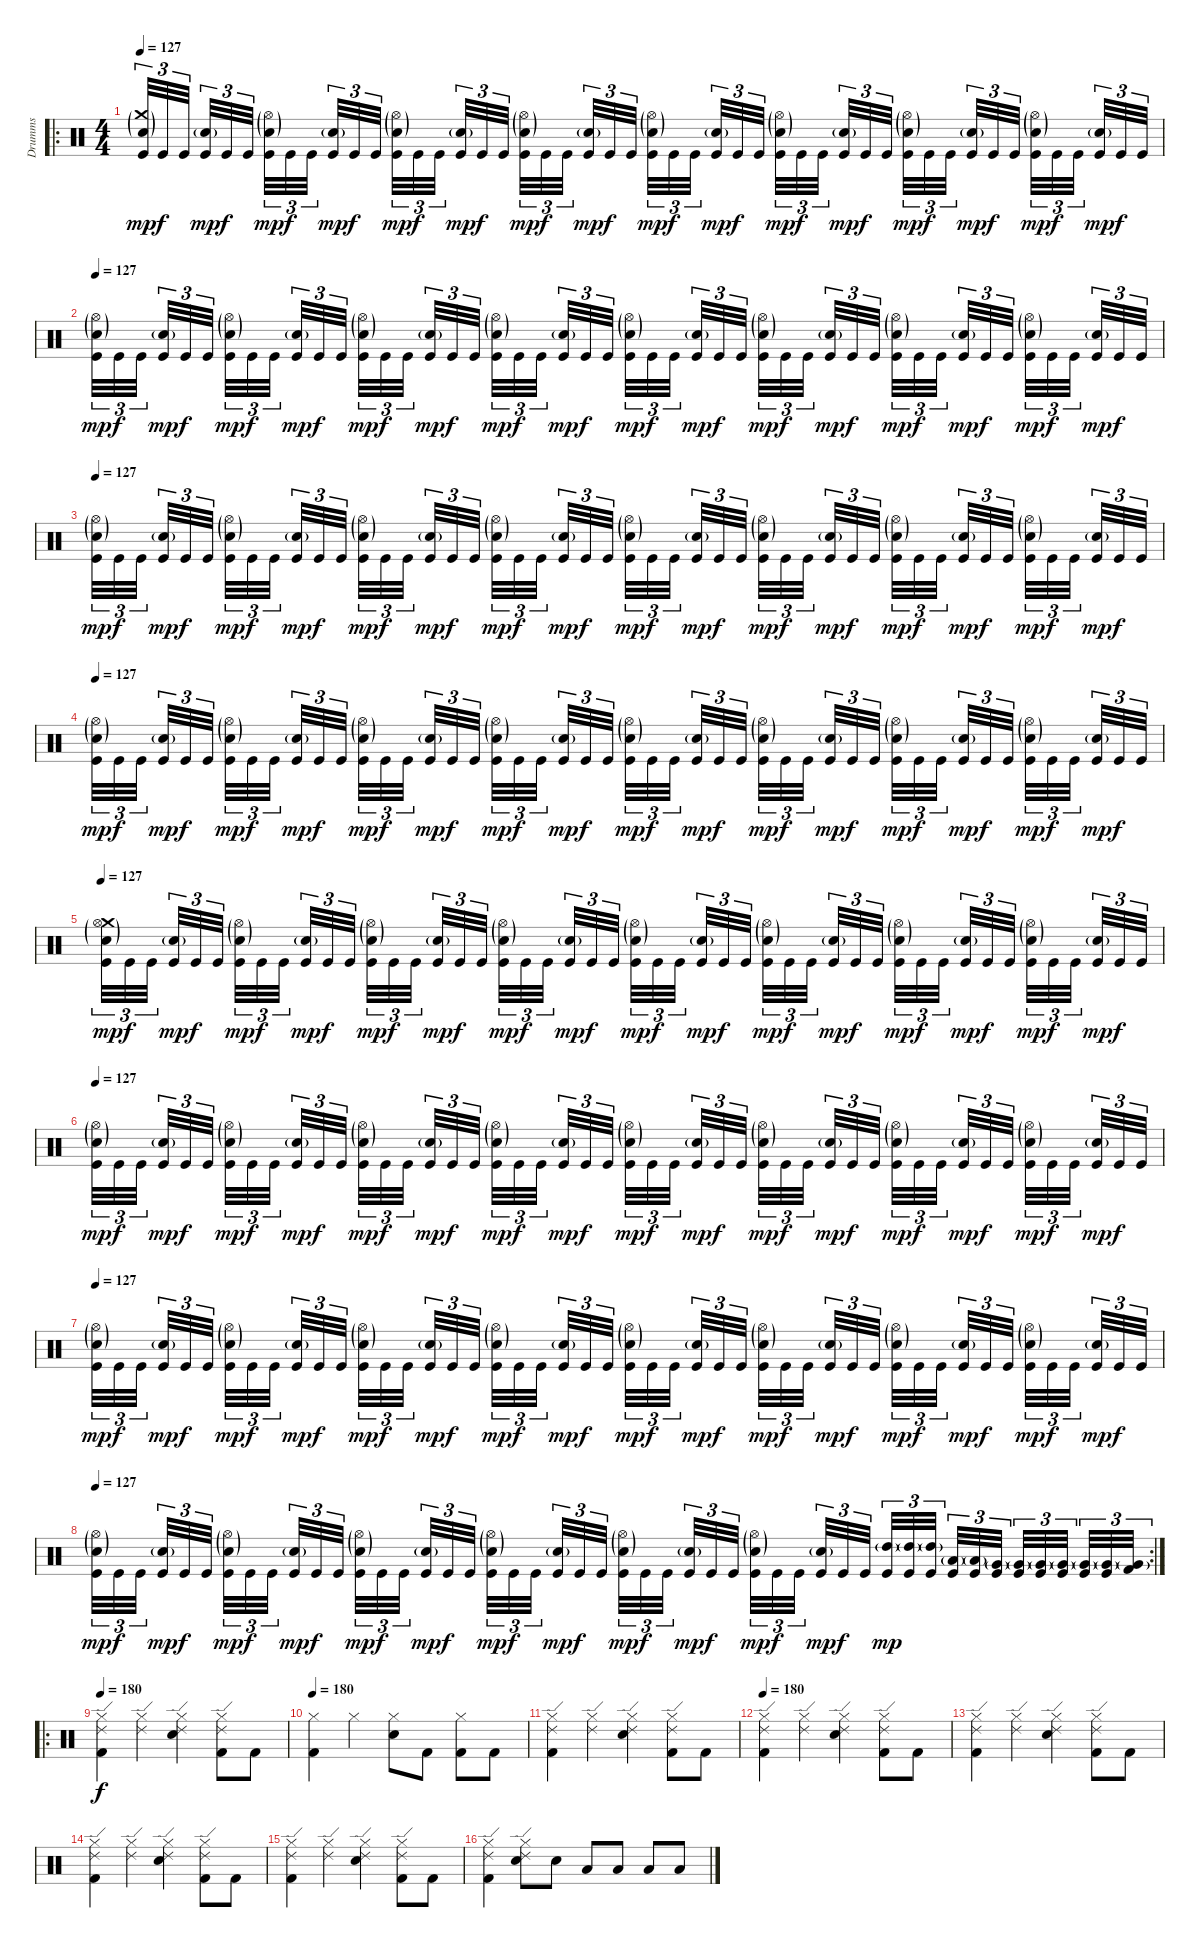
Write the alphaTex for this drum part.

\track ("Drumms" "Drumms") {instrument percussion}
\staff {score}
\articulation defaults
\ro
\ts (4 4)
\tempo 127
\clef neutral
\ks c
("Kick (hit)" "Crash medium (hit)"{g} "Snare (hit) 2"{g}).32{tu (3 2) dy mp} "Kick (hit)".32{tu (3 2) dy f} "Kick (hit)".32{tu (3 2)} ("Kick (hit)" "Snare (hit) 2"{g}).32{tu (3 2) dy mp} "Kick (hit)".32{tu (3 2) dy f} "Kick (hit)".32{tu (3 2)} ("Kick (hit)" "Hi-Hat (open)"{g} "Snare (hit) 2"{g}).32{tu (3 2) dy mp} "Kick (hit)".32{tu (3 2) dy f} "Kick (hit)".32{tu (3 2)} ("Kick (hit)" "Snare (hit) 2"{g}).32{tu (3 2) dy mp} "Kick (hit)".32{tu (3 2) dy f} "Kick (hit)".32{tu (3 2)} ("Kick (hit)" "Snare (hit) 2"{g} "Hi-Hat (open)"{g}).32{tu (3 2) dy mp} "Kick (hit)".32{tu (3 2) dy f} "Kick (hit)".32{tu (3 2)} ("Kick (hit)" "Snare (hit) 2"{g}).32{tu (3 2) dy mp} "Kick (hit)".32{tu (3 2) dy f} "Kick (hit)".32{tu (3 2)} ("Kick (hit)" "Hi-Hat (open)"{g} "Snare (hit) 2"{g}).32{tu (3 2) dy mp} "Kick (hit)".32{tu (3 2) dy f} "Kick (hit)".32{tu (3 2)} ("Kick (hit)" "Snare (hit) 2"{g}).32{tu (3 2) dy mp} "Kick (hit)".32{tu (3 2) dy f} "Kick (hit)".32{tu (3 2)} ("Kick (hit)" "Hi-Hat (open)"{g} "Snare (hit) 2"{g}).32{tu (3 2) dy mp} "Kick (hit)".32{tu (3 2) dy f} "Kick (hit)".32{tu (3 2)} ("Kick (hit)" "Snare (hit) 2"{g}).32{tu (3 2) dy mp} "Kick (hit)".32{tu (3 2) dy f} "Kick (hit)".32{tu (3 2)} ("Kick (hit)" "Hi-Hat (open)"{g} "Snare (hit) 2"{g}).32{tu (3 2) dy mp} "Kick (hit)".32{tu (3 2) dy f} "Kick (hit)".32{tu (3 2)} ("Kick (hit)" "Snare (hit) 2"{g}).32{tu (3 2) dy mp} "Kick (hit)".32{tu (3 2) dy f} "Kick (hit)".32{tu (3 2)} ("Kick (hit)" "Hi-Hat (open)"{g} "Snare (hit) 2"{g}).32{tu (3 2) dy mp} "Kick (hit)".32{tu (3 2) dy f} "Kick (hit)".32{tu (3 2)} ("Kick (hit)" "Snare (hit) 2"{g}).32{tu (3 2) dy mp} "Kick (hit)".32{tu (3 2) dy f} "Kick (hit)".32{tu (3 2)} ("Kick (hit)" "Hi-Hat (open)"{g} "Snare (hit) 2"{g}).32{tu (3 2) dy mp} "Kick (hit)".32{tu (3 2) dy f} "Kick (hit)".32{tu (3 2)} ("Kick (hit)" "Snare (hit) 2"{g}).32{tu (3 2) dy mp} "Kick (hit)".32{tu (3 2) dy f} "Kick (hit)".32{tu (3 2)} |
\tempo 127
("Kick (hit)" "Hi-Hat (open)"{g} "Snare (hit) 2"{g}).32{tu (3 2) dy mp} "Kick (hit)".32{tu (3 2) dy f} "Kick (hit)".32{tu (3 2)} ("Kick (hit)" "Snare (hit) 2"{g}).32{tu (3 2) dy mp} "Kick (hit)".32{tu (3 2) dy f} "Kick (hit)".32{tu (3 2)} ("Kick (hit)" "Hi-Hat (open)"{g} "Snare (hit) 2"{g}).32{tu (3 2) dy mp} "Kick (hit)".32{tu (3 2) dy f} "Kick (hit)".32{tu (3 2)} ("Kick (hit)" "Snare (hit) 2"{g}).32{tu (3 2) dy mp} "Kick (hit)".32{tu (3 2) dy f} "Kick (hit)".32{tu (3 2)} ("Kick (hit)" "Snare (hit) 2"{g} "Hi-Hat (open)"{g}).32{tu (3 2) dy mp} "Kick (hit)".32{tu (3 2) dy f} "Kick (hit)".32{tu (3 2)} ("Kick (hit)" "Snare (hit) 2"{g}).32{tu (3 2) dy mp} "Kick (hit)".32{tu (3 2) dy f} "Kick (hit)".32{tu (3 2)} ("Kick (hit)" "Hi-Hat (open)"{g} "Snare (hit) 2"{g}).32{tu (3 2) dy mp} "Kick (hit)".32{tu (3 2) dy f} "Kick (hit)".32{tu (3 2)} ("Kick (hit)" "Snare (hit) 2"{g}).32{tu (3 2) dy mp} "Kick (hit)".32{tu (3 2) dy f} "Kick (hit)".32{tu (3 2)} ("Kick (hit)" "Hi-Hat (open)"{g} "Snare (hit) 2"{g}).32{tu (3 2) dy mp} "Kick (hit)".32{tu (3 2) dy f} "Kick (hit)".32{tu (3 2)} ("Kick (hit)" "Snare (hit) 2"{g}).32{tu (3 2) dy mp} "Kick (hit)".32{tu (3 2) dy f} "Kick (hit)".32{tu (3 2)} ("Kick (hit)" "Hi-Hat (open)"{g} "Snare (hit) 2"{g}).32{tu (3 2) dy mp} "Kick (hit)".32{tu (3 2) dy f} "Kick (hit)".32{tu (3 2)} ("Kick (hit)" "Snare (hit) 2"{g}).32{tu (3 2) dy mp} "Kick (hit)".32{tu (3 2) dy f} "Kick (hit)".32{tu (3 2)} ("Kick (hit)" "Hi-Hat (open)"{g} "Snare (hit) 2"{g}).32{tu (3 2) dy mp} "Kick (hit)".32{tu (3 2) dy f} "Kick (hit)".32{tu (3 2)} ("Kick (hit)" "Snare (hit) 2"{g}).32{tu (3 2) dy mp} "Kick (hit)".32{tu (3 2) dy f} "Kick (hit)".32{tu (3 2)} ("Kick (hit)" "Hi-Hat (open)"{g} "Snare (hit) 2"{g}).32{tu (3 2) dy mp} "Kick (hit)".32{tu (3 2) dy f} "Kick (hit)".32{tu (3 2)} ("Kick (hit)" "Snare (hit) 2"{g}).32{tu (3 2) dy mp} "Kick (hit)".32{tu (3 2) dy f} "Kick (hit)".32{tu (3 2)} |
\tempo 127
("Kick (hit)" "Hi-Hat (open)"{g} "Snare (hit) 2"{g}).32{tu (3 2) dy mp} "Kick (hit)".32{tu (3 2) dy f} "Kick (hit)".32{tu (3 2)} ("Kick (hit)" "Snare (hit) 2"{g}).32{tu (3 2) dy mp} "Kick (hit)".32{tu (3 2) dy f} "Kick (hit)".32{tu (3 2)} ("Kick (hit)" "Hi-Hat (open)"{g} "Snare (hit) 2"{g}).32{tu (3 2) dy mp} "Kick (hit)".32{tu (3 2) dy f} "Kick (hit)".32{tu (3 2)} ("Kick (hit)" "Snare (hit) 2"{g}).32{tu (3 2) dy mp} "Kick (hit)".32{tu (3 2) dy f} "Kick (hit)".32{tu (3 2)} ("Kick (hit)" "Snare (hit) 2"{g} "Hi-Hat (open)"{g}).32{tu (3 2) dy mp} "Kick (hit)".32{tu (3 2) dy f} "Kick (hit)".32{tu (3 2)} ("Kick (hit)" "Snare (hit) 2"{g}).32{tu (3 2) dy mp} "Kick (hit)".32{tu (3 2) dy f} "Kick (hit)".32{tu (3 2)} ("Kick (hit)" "Hi-Hat (open)"{g} "Snare (hit) 2"{g}).32{tu (3 2) dy mp} "Kick (hit)".32{tu (3 2) dy f} "Kick (hit)".32{tu (3 2)} ("Kick (hit)" "Snare (hit) 2"{g}).32{tu (3 2) dy mp} "Kick (hit)".32{tu (3 2) dy f} "Kick (hit)".32{tu (3 2)} ("Kick (hit)" "Hi-Hat (open)"{g} "Snare (hit) 2"{g}).32{tu (3 2) dy mp} "Kick (hit)".32{tu (3 2) dy f} "Kick (hit)".32{tu (3 2)} ("Kick (hit)" "Snare (hit) 2"{g}).32{tu (3 2) dy mp} "Kick (hit)".32{tu (3 2) dy f} "Kick (hit)".32{tu (3 2)} ("Kick (hit)" "Hi-Hat (open)"{g} "Snare (hit) 2"{g}).32{tu (3 2) dy mp} "Kick (hit)".32{tu (3 2) dy f} "Kick (hit)".32{tu (3 2)} ("Kick (hit)" "Snare (hit) 2"{g}).32{tu (3 2) dy mp} "Kick (hit)".32{tu (3 2) dy f} "Kick (hit)".32{tu (3 2)} ("Kick (hit)" "Hi-Hat (open)"{g} "Snare (hit) 2"{g}).32{tu (3 2) dy mp} "Kick (hit)".32{tu (3 2) dy f} "Kick (hit)".32{tu (3 2)} ("Kick (hit)" "Snare (hit) 2"{g}).32{tu (3 2) dy mp} "Kick (hit)".32{tu (3 2) dy f} "Kick (hit)".32{tu (3 2)} ("Kick (hit)" "Hi-Hat (open)"{g} "Snare (hit) 2"{g}).32{tu (3 2) dy mp} "Kick (hit)".32{tu (3 2) dy f} "Kick (hit)".32{tu (3 2)} ("Kick (hit)" "Snare (hit) 2"{g}).32{tu (3 2) dy mp} "Kick (hit)".32{tu (3 2) dy f} "Kick (hit)".32{tu (3 2)} |
\tempo 127
("Kick (hit)" "Hi-Hat (open)"{g} "Snare (hit) 2"{g}).32{tu (3 2) dy mp} "Kick (hit)".32{tu (3 2) dy f} "Kick (hit)".32{tu (3 2)} ("Kick (hit)" "Snare (hit) 2"{g}).32{tu (3 2) dy mp} "Kick (hit)".32{tu (3 2) dy f} "Kick (hit)".32{tu (3 2)} ("Kick (hit)" "Hi-Hat (open)"{g} "Snare (hit) 2"{g}).32{tu (3 2) dy mp} "Kick (hit)".32{tu (3 2) dy f} "Kick (hit)".32{tu (3 2)} ("Kick (hit)" "Snare (hit) 2"{g}).32{tu (3 2) dy mp} "Kick (hit)".32{tu (3 2) dy f} "Kick (hit)".32{tu (3 2)} ("Kick (hit)" "Snare (hit) 2"{g} "Hi-Hat (open)"{g}).32{tu (3 2) dy mp} "Kick (hit)".32{tu (3 2) dy f} "Kick (hit)".32{tu (3 2)} ("Kick (hit)" "Snare (hit) 2"{g}).32{tu (3 2) dy mp} "Kick (hit)".32{tu (3 2) dy f} "Kick (hit)".32{tu (3 2)} ("Kick (hit)" "Hi-Hat (open)"{g} "Snare (hit) 2"{g}).32{tu (3 2) dy mp} "Kick (hit)".32{tu (3 2) dy f} "Kick (hit)".32{tu (3 2)} ("Kick (hit)" "Snare (hit) 2"{g}).32{tu (3 2) dy mp} "Kick (hit)".32{tu (3 2) dy f} "Kick (hit)".32{tu (3 2)} ("Kick (hit)" "Hi-Hat (open)"{g} "Snare (hit) 2"{g}).32{tu (3 2) dy mp} "Kick (hit)".32{tu (3 2) dy f} "Kick (hit)".32{tu (3 2)} ("Kick (hit)" "Snare (hit) 2"{g}).32{tu (3 2) dy mp} "Kick (hit)".32{tu (3 2) dy f} "Kick (hit)".32{tu (3 2)} ("Kick (hit)" "Hi-Hat (open)"{g} "Snare (hit) 2"{g}).32{tu (3 2) dy mp} "Kick (hit)".32{tu (3 2) dy f} "Kick (hit)".32{tu (3 2)} ("Kick (hit)" "Snare (hit) 2"{g}).32{tu (3 2) dy mp} "Kick (hit)".32{tu (3 2) dy f} "Kick (hit)".32{tu (3 2)} ("Kick (hit)" "Hi-Hat (open)"{g} "Snare (hit) 2"{g}).32{tu (3 2) dy mp} "Kick (hit)".32{tu (3 2) dy f} "Kick (hit)".32{tu (3 2)} ("Kick (hit)" "Snare (hit) 2"{g}).32{tu (3 2) dy mp} "Kick (hit)".32{tu (3 2) dy f} "Kick (hit)".32{tu (3 2)} ("Kick (hit)" "Hi-Hat (open)"{g} "Snare (hit) 2"{g}).32{tu (3 2) dy mp} "Kick (hit)".32{tu (3 2) dy f} "Kick (hit)".32{tu (3 2)} ("Kick (hit)" "Snare (hit) 2"{g}).32{tu (3 2) dy mp} "Kick (hit)".32{tu (3 2) dy f} "Kick (hit)".32{tu (3 2)} |
\tempo 127
("Kick (hit)" "Crash medium (hit)" "Hi-Hat (open)"{g} "Snare (hit) 2"{g}).32{tu (3 2) dy mp} "Kick (hit)".32{tu (3 2) dy f} "Kick (hit)".32{tu (3 2)} ("Kick (hit)" "Snare (hit) 2"{g}).32{tu (3 2) dy mp} "Kick (hit)".32{tu (3 2) dy f} "Kick (hit)".32{tu (3 2)} ("Kick (hit)" "Hi-Hat (open)"{g} "Snare (hit) 2"{g}).32{tu (3 2) dy mp} "Kick (hit)".32{tu (3 2) dy f} "Kick (hit)".32{tu (3 2)} ("Kick (hit)" "Snare (hit) 2"{g}).32{tu (3 2) dy mp} "Kick (hit)".32{tu (3 2) dy f} "Kick (hit)".32{tu (3 2)} ("Kick (hit)" "Snare (hit) 2"{g} "Hi-Hat (open)"{g}).32{tu (3 2) dy mp} "Kick (hit)".32{tu (3 2) dy f} "Kick (hit)".32{tu (3 2)} ("Kick (hit)" "Snare (hit) 2"{g}).32{tu (3 2) dy mp} "Kick (hit)".32{tu (3 2) dy f} "Kick (hit)".32{tu (3 2)} ("Kick (hit)" "Hi-Hat (open)"{g} "Snare (hit) 2"{g}).32{tu (3 2) dy mp} "Kick (hit)".32{tu (3 2) dy f} "Kick (hit)".32{tu (3 2)} ("Kick (hit)" "Snare (hit) 2"{g}).32{tu (3 2) dy mp} "Kick (hit)".32{tu (3 2) dy f} "Kick (hit)".32{tu (3 2)} ("Kick (hit)" "Hi-Hat (open)"{g} "Snare (hit) 2"{g}).32{tu (3 2) dy mp} "Kick (hit)".32{tu (3 2) dy f} "Kick (hit)".32{tu (3 2)} ("Kick (hit)" "Snare (hit) 2"{g}).32{tu (3 2) dy mp} "Kick (hit)".32{tu (3 2) dy f} "Kick (hit)".32{tu (3 2)} ("Kick (hit)" "Hi-Hat (open)"{g} "Snare (hit) 2"{g}).32{tu (3 2) dy mp} "Kick (hit)".32{tu (3 2) dy f} "Kick (hit)".32{tu (3 2)} ("Kick (hit)" "Snare (hit) 2"{g}).32{tu (3 2) dy mp} "Kick (hit)".32{tu (3 2) dy f} "Kick (hit)".32{tu (3 2)} ("Kick (hit)" "Hi-Hat (open)"{g} "Snare (hit) 2"{g}).32{tu (3 2) dy mp} "Kick (hit)".32{tu (3 2) dy f} "Kick (hit)".32{tu (3 2)} ("Kick (hit)" "Snare (hit) 2"{g}).32{tu (3 2) dy mp} "Kick (hit)".32{tu (3 2) dy f} "Kick (hit)".32{tu (3 2)} ("Kick (hit)" "Hi-Hat (open)"{g} "Snare (hit) 2"{g}).32{tu (3 2) dy mp} "Kick (hit)".32{tu (3 2) dy f} "Kick (hit)".32{tu (3 2)} ("Kick (hit)" "Snare (hit) 2"{g}).32{tu (3 2) dy mp} "Kick (hit)".32{tu (3 2) dy f} "Kick (hit)".32{tu (3 2)} |
\tempo 127
("Kick (hit)" "Hi-Hat (open)"{g} "Snare (hit) 2"{g}).32{tu (3 2) dy mp} "Kick (hit)".32{tu (3 2) dy f} "Kick (hit)".32{tu (3 2)} ("Kick (hit)" "Snare (hit) 2"{g}).32{tu (3 2) dy mp} "Kick (hit)".32{tu (3 2) dy f} "Kick (hit)".32{tu (3 2)} ("Kick (hit)" "Hi-Hat (open)"{g} "Snare (hit) 2"{g}).32{tu (3 2) dy mp} "Kick (hit)".32{tu (3 2) dy f} "Kick (hit)".32{tu (3 2)} ("Kick (hit)" "Snare (hit) 2"{g}).32{tu (3 2) dy mp} "Kick (hit)".32{tu (3 2) dy f} "Kick (hit)".32{tu (3 2)} ("Kick (hit)" "Snare (hit) 2"{g} "Hi-Hat (open)"{g}).32{tu (3 2) dy mp} "Kick (hit)".32{tu (3 2) dy f} "Kick (hit)".32{tu (3 2)} ("Kick (hit)" "Snare (hit) 2"{g}).32{tu (3 2) dy mp} "Kick (hit)".32{tu (3 2) dy f} "Kick (hit)".32{tu (3 2)} ("Kick (hit)" "Hi-Hat (open)"{g} "Snare (hit) 2"{g}).32{tu (3 2) dy mp} "Kick (hit)".32{tu (3 2) dy f} "Kick (hit)".32{tu (3 2)} ("Kick (hit)" "Snare (hit) 2"{g}).32{tu (3 2) dy mp} "Kick (hit)".32{tu (3 2) dy f} "Kick (hit)".32{tu (3 2)} ("Kick (hit)" "Hi-Hat (open)"{g} "Snare (hit) 2"{g}).32{tu (3 2) dy mp} "Kick (hit)".32{tu (3 2) dy f} "Kick (hit)".32{tu (3 2)} ("Kick (hit)" "Snare (hit) 2"{g}).32{tu (3 2) dy mp} "Kick (hit)".32{tu (3 2) dy f} "Kick (hit)".32{tu (3 2)} ("Kick (hit)" "Hi-Hat (open)"{g} "Snare (hit) 2"{g}).32{tu (3 2) dy mp} "Kick (hit)".32{tu (3 2) dy f} "Kick (hit)".32{tu (3 2)} ("Kick (hit)" "Snare (hit) 2"{g}).32{tu (3 2) dy mp} "Kick (hit)".32{tu (3 2) dy f} "Kick (hit)".32{tu (3 2)} ("Kick (hit)" "Hi-Hat (open)"{g} "Snare (hit) 2"{g}).32{tu (3 2) dy mp} "Kick (hit)".32{tu (3 2) dy f} "Kick (hit)".32{tu (3 2)} ("Kick (hit)" "Snare (hit) 2"{g}).32{tu (3 2) dy mp} "Kick (hit)".32{tu (3 2) dy f} "Kick (hit)".32{tu (3 2)} ("Kick (hit)" "Hi-Hat (open)"{g} "Snare (hit) 2"{g}).32{tu (3 2) dy mp} "Kick (hit)".32{tu (3 2) dy f} "Kick (hit)".32{tu (3 2)} ("Kick (hit)" "Snare (hit) 2"{g}).32{tu (3 2) dy mp} "Kick (hit)".32{tu (3 2) dy f} "Kick (hit)".32{tu (3 2)} |
\tempo 127
("Kick (hit)" "Hi-Hat (open)"{g} "Snare (hit) 2"{g}).32{tu (3 2) dy mp} "Kick (hit)".32{tu (3 2) dy f} "Kick (hit)".32{tu (3 2)} ("Kick (hit)" "Snare (hit) 2"{g}).32{tu (3 2) dy mp} "Kick (hit)".32{tu (3 2) dy f} "Kick (hit)".32{tu (3 2)} ("Kick (hit)" "Hi-Hat (open)"{g} "Snare (hit) 2"{g}).32{tu (3 2) dy mp} "Kick (hit)".32{tu (3 2) dy f} "Kick (hit)".32{tu (3 2)} ("Kick (hit)" "Snare (hit) 2"{g}).32{tu (3 2) dy mp} "Kick (hit)".32{tu (3 2) dy f} "Kick (hit)".32{tu (3 2)} ("Kick (hit)" "Snare (hit) 2"{g} "Hi-Hat (open)"{g}).32{tu (3 2) dy mp} "Kick (hit)".32{tu (3 2) dy f} "Kick (hit)".32{tu (3 2)} ("Kick (hit)" "Snare (hit) 2"{g}).32{tu (3 2) dy mp} "Kick (hit)".32{tu (3 2) dy f} "Kick (hit)".32{tu (3 2)} ("Kick (hit)" "Hi-Hat (open)"{g} "Snare (hit) 2"{g}).32{tu (3 2) dy mp} "Kick (hit)".32{tu (3 2) dy f} "Kick (hit)".32{tu (3 2)} ("Kick (hit)" "Snare (hit) 2"{g}).32{tu (3 2) dy mp} "Kick (hit)".32{tu (3 2) dy f} "Kick (hit)".32{tu (3 2)} ("Kick (hit)" "Hi-Hat (open)"{g} "Snare (hit) 2"{g}).32{tu (3 2) dy mp} "Kick (hit)".32{tu (3 2) dy f} "Kick (hit)".32{tu (3 2)} ("Kick (hit)" "Snare (hit) 2"{g}).32{tu (3 2) dy mp} "Kick (hit)".32{tu (3 2) dy f} "Kick (hit)".32{tu (3 2)} ("Kick (hit)" "Hi-Hat (open)"{g} "Snare (hit) 2"{g}).32{tu (3 2) dy mp} "Kick (hit)".32{tu (3 2) dy f} "Kick (hit)".32{tu (3 2)} ("Kick (hit)" "Snare (hit) 2"{g}).32{tu (3 2) dy mp} "Kick (hit)".32{tu (3 2) dy f} "Kick (hit)".32{tu (3 2)} ("Kick (hit)" "Hi-Hat (open)"{g} "Snare (hit) 2"{g}).32{tu (3 2) dy mp} "Kick (hit)".32{tu (3 2) dy f} "Kick (hit)".32{tu (3 2)} ("Kick (hit)" "Snare (hit) 2"{g}).32{tu (3 2) dy mp} "Kick (hit)".32{tu (3 2) dy f} "Kick (hit)".32{tu (3 2)} ("Kick (hit)" "Hi-Hat (open)"{g} "Snare (hit) 2"{g}).32{tu (3 2) dy mp} "Kick (hit)".32{tu (3 2) dy f} "Kick (hit)".32{tu (3 2)} ("Kick (hit)" "Snare (hit) 2"{g}).32{tu (3 2) dy mp} "Kick (hit)".32{tu (3 2) dy f} "Kick (hit)".32{tu (3 2)} |
\rc 2
\tempo 127
("Kick (hit)" "Hi-Hat (open)"{g} "Snare (hit) 2"{g}).32{tu (3 2) dy mp} "Kick (hit)".32{tu (3 2) dy f} "Kick (hit)".32{tu (3 2)} ("Kick (hit)" "Snare (hit) 2"{g}).32{tu (3 2) dy mp} "Kick (hit)".32{tu (3 2) dy f} "Kick (hit)".32{tu (3 2)} ("Kick (hit)" "Hi-Hat (open)"{g} "Snare (hit) 2"{g}).32{tu (3 2) dy mp} "Kick (hit)".32{tu (3 2) dy f} "Kick (hit)".32{tu (3 2)} ("Kick (hit)" "Snare (hit) 2"{g}).32{tu (3 2) dy mp} "Kick (hit)".32{tu (3 2) dy f} "Kick (hit)".32{tu (3 2)} ("Kick (hit)" "Snare (hit) 2"{g} "Hi-Hat (open)"{g}).32{tu (3 2) dy mp} "Kick (hit)".32{tu (3 2) dy f} "Kick (hit)".32{tu (3 2)} ("Kick (hit)" "Snare (hit) 2"{g}).32{tu (3 2) dy mp} "Kick (hit)".32{tu (3 2) dy f} "Kick (hit)".32{tu (3 2)} ("Kick (hit)" "Hi-Hat (open)"{g} "Snare (hit) 2"{g}).32{tu (3 2) dy mp} "Kick (hit)".32{tu (3 2) dy f} "Kick (hit)".32{tu (3 2)} ("Kick (hit)" "Snare (hit) 2"{g}).32{tu (3 2) dy mp} "Kick (hit)".32{tu (3 2) dy f} "Kick (hit)".32{tu (3 2)} ("Kick (hit)" "Hi-Hat (open)"{g} "Snare (hit) 2"{g}).32{tu (3 2) dy mp} "Kick (hit)".32{tu (3 2) dy f} "Kick (hit)".32{tu (3 2)} ("Kick (hit)" "Snare (hit) 2"{g}).32{tu (3 2) dy mp} "Kick (hit)".32{tu (3 2) dy f} "Kick (hit)".32{tu (3 2)} ("Kick (hit)" "Hi-Hat (open)"{g} "Snare (hit) 2"{g}).32{tu (3 2) dy mp} "Kick (hit)".32{tu (3 2) dy f} "Kick (hit)".32{tu (3 2)} ("Kick (hit)" "Snare (hit) 2"{g}).32{tu (3 2) dy mp} "Kick (hit)".32{tu (3 2) dy f} "Kick (hit)".32{tu (3 2)} ("Kick (hit)" "High Tom (hit)"{g}).32{tu (3 2) dy mp} ("Kick (hit)" "High Tom (hit)"{g}).32{tu (3 2)} ("Kick (hit)" "High Tom (hit)"{g}).32{tu (3 2)} ("Kick (hit)" "Low Tom (hit)"{g}).32{tu (3 2)} ("Kick (hit)" "Low Tom (hit)"{g}).32{tu (3 2)} ("Kick (hit)" "Very Low Tom (hit)"{g}).32{tu (3 2)} ("Kick (hit)" "Very Low Tom (hit)"{g}).32{tu (3 2)} ("Kick (hit)" "Very Low Tom (hit)"{g}).32{tu (3 2)} ("Kick (hit)" "Very Low Tom (hit)"{g}).32{tu (3 2)} ("Kick (hit)" "Very Low Tom (hit)"{g}).32{tu (3 2)} ("Kick (hit)" "Very Low Tom (hit)"{g}).32{tu (3 2)} ("Kick (hit) 2" "Very Low Tom (hit)"{g}).32{tu (3 2)} |
\ro
\tempo 180
("Kick (hit) 2" "Ride (edge) 2" "Hi-Hat (closed)").4{dy f} ("Ride (edge) 2" "Hi-Hat (closed)").4 ("Snare (hit) 2" "Ride (edge) 2" "Hi-Hat (closed)").4 ("Kick (hit) 2" "Ride (edge) 2" "Hi-Hat (closed)").8 "Kick (hit) 2".8 |
\tempo 180
("Kick (hit) 2" "Hi-Hat (closed)").4 "Hi-Hat (closed)".4 ("Snare (hit) 2" "Hi-Hat (closed)").8 "Kick (hit) 2".8 ("Kick (hit) 2" "Hi-Hat (closed)").8 "Kick (hit) 2".8 |
("Kick (hit) 2" "Ride (edge) 2" "Hi-Hat (closed)").4 ("Ride (edge) 2" "Hi-Hat (closed)").4 ("Snare (hit) 2" "Ride (edge) 2" "Hi-Hat (closed)").4 ("Kick (hit) 2" "Ride (edge) 2" "Hi-Hat (closed)").8 "Kick (hit) 2".8 |
\tempo 180
("Kick (hit) 2" "Ride (edge) 2" "Hi-Hat (closed)").4 ("Ride (edge) 2" "Hi-Hat (closed)").4 ("Snare (hit) 2" "Ride (edge) 2" "Hi-Hat (closed)").4 ("Kick (hit) 2" "Ride (edge) 2" "Hi-Hat (closed)").8 "Kick (hit) 2".8 |
("Kick (hit) 2" "Ride (edge) 2" "Hi-Hat (closed)").4 ("Ride (edge) 2" "Hi-Hat (closed)").4 ("Snare (hit) 2" "Ride (edge) 2" "Hi-Hat (closed)").4 ("Kick (hit) 2" "Ride (edge) 2" "Hi-Hat (closed)").8 "Kick (hit) 2".8 |
("Kick (hit) 2" "Ride (edge) 2" "Hi-Hat (closed)").4 ("Ride (edge) 2" "Hi-Hat (closed)").4 ("Snare (hit) 2" "Ride (edge) 2" "Hi-Hat (closed)").4 ("Kick (hit) 2" "Ride (edge) 2" "Hi-Hat (closed)").8 "Kick (hit) 2".8 |
("Kick (hit) 2" "Ride (edge) 2" "Hi-Hat (closed)").4 ("Ride (edge) 2" "Hi-Hat (closed)").4 ("Snare (hit) 2" "Ride (edge) 2" "Hi-Hat (closed)").4 ("Kick (hit) 2" "Ride (edge) 2" "Hi-Hat (closed)").8 "Kick (hit) 2".8 |
("Kick (hit) 2" "Ride (edge) 2" "Hi-Hat (closed)").4 ("Snare (hit) 2" "Ride (edge) 2" "Hi-Hat (closed)").8 "Snare (hit) 2".8 "Low Tom (hit)".8 "Low Tom (hit)".8 "Low Floor Tom (hit)".8 "Low Floor Tom (hit)".8
